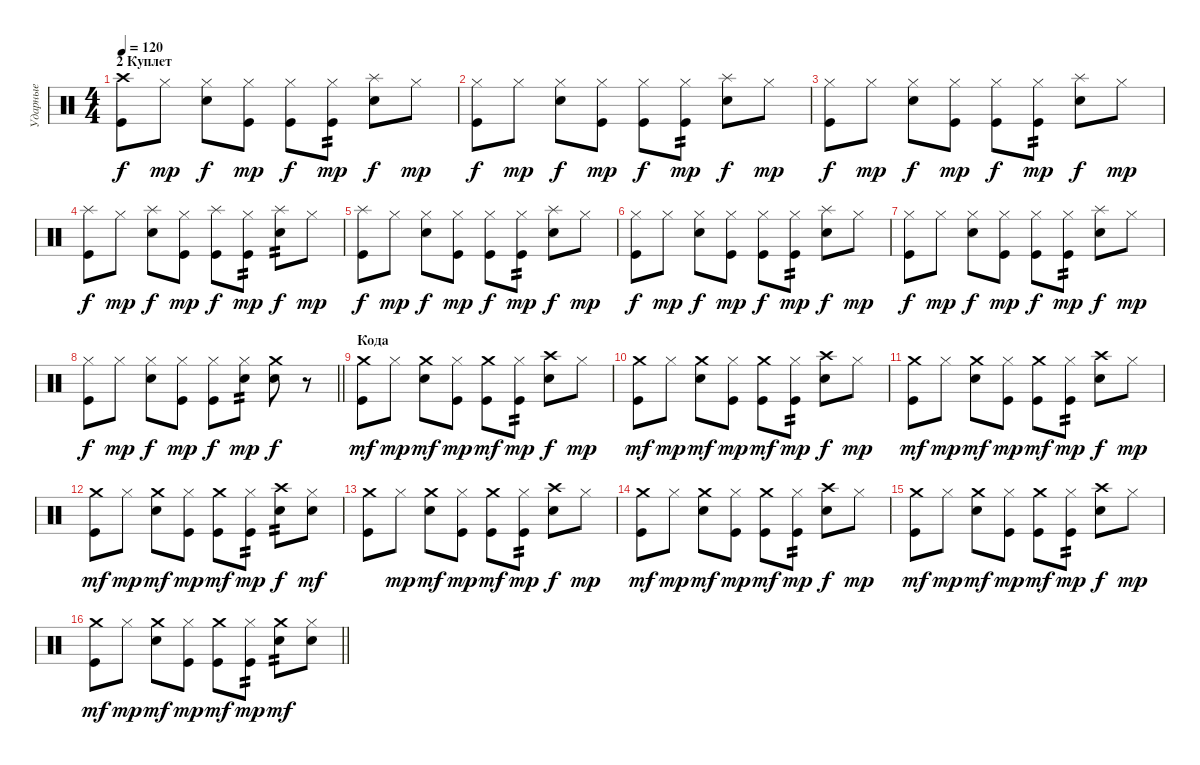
\track ("Ударные" "Ударные") {instrument percussion}
\staff {score}
\articulation defaults
\ts (4 4)
\section ("" "2 Куплет")
\tempo 120
\clef neutral
\ks c
("Crash high (hit)" "Kick (hit)").8{dy f} "Hi-Hat (closed)".8{dy mp} ("Hi-Hat (closed)" "Snare (hit) 2").8{dy f} ("Hi-Hat (closed)" "Kick (hit)").8{dy mp} ("Hi-Hat (closed)" "Kick (hit)").8{dy f} ("Hi-Hat (closed)" "Kick (hit)").8{tp 2 dy mp} ("Splash (hit)" "Snare (hit) 2").8{dy f} "Hi-Hat (closed)".8{dy mp} |
("Hi-Hat (closed)" "Kick (hit)").8{dy f} "Hi-Hat (closed)".8{dy mp} ("Hi-Hat (closed)" "Snare (hit) 2").8{dy f} ("Hi-Hat (closed)" "Kick (hit)").8{dy mp} ("Hi-Hat (closed)" "Kick (hit)").8{dy f} ("Hi-Hat (closed)" "Kick (hit)").8{tp 2 dy mp} ("Splash (hit)" "Snare (hit) 2").8{dy f} "Hi-Hat (closed)".8{dy mp} |
("Hi-Hat (closed)" "Kick (hit)").8{dy f} "Hi-Hat (closed)".8{dy mp} ("Hi-Hat (closed)" "Snare (hit) 2").8{dy f} ("Hi-Hat (closed)" "Kick (hit)").8{dy mp} ("Hi-Hat (closed)" "Kick (hit)").8{dy f} ("Hi-Hat (closed)" "Kick (hit)").8{tp 2 dy mp} ("Splash (hit)" "Snare (hit) 2").8{dy f} "Hi-Hat (closed)".8{dy mp} |
("Splash (hit)" "Kick (hit)").8{dy f} "Hi-Hat (closed)".8{dy mp} ("Splash (hit)" "Snare (hit) 2").8{dy f} ("Hi-Hat (closed)" "Kick (hit)").8{dy mp} ("Splash (hit)" "Kick (hit)").8{dy f} ("Hi-Hat (closed)" "Kick (hit)").8{tp 2 dy mp} ("Splash (hit)" "Snare (hit) 2").8{tp 2 dy f} "Hi-Hat (closed)".8{dy mp} |
("Splash (hit)" "Kick (hit)").8{dy f} "Hi-Hat (closed)".8{dy mp} ("Hi-Hat (closed)" "Snare (hit) 2").8{dy f} ("Hi-Hat (closed)" "Kick (hit)").8{dy mp} ("Hi-Hat (closed)" "Kick (hit)").8{dy f} ("Hi-Hat (closed)" "Kick (hit)").8{tp 2 dy mp} ("Splash (hit)" "Snare (hit) 2").8{dy f} "Hi-Hat (closed)".8{dy mp} |
("Hi-Hat (closed)" "Kick (hit)").8{dy f} "Hi-Hat (closed)".8{dy mp} ("Hi-Hat (closed)" "Snare (hit) 2").8{dy f} ("Hi-Hat (closed)" "Kick (hit)").8{dy mp} ("Hi-Hat (closed)" "Kick (hit)").8{dy f} ("Hi-Hat (closed)" "Kick (hit)").8{tp 2 dy mp} ("Splash (hit)" "Snare (hit) 2").8{dy f} "Hi-Hat (closed)".8{dy mp} |
("Hi-Hat (closed)" "Kick (hit)").8{dy f} "Hi-Hat (closed)".8{dy mp} ("Hi-Hat (closed)" "Snare (hit) 2").8{dy f} ("Hi-Hat (closed)" "Kick (hit)").8{dy mp} ("Hi-Hat (closed)" "Kick (hit)").8{dy f} ("Hi-Hat (closed)" "Kick (hit)").8{tp 2 dy mp} ("Splash (hit)" "Snare (hit) 2").8{dy f} "Hi-Hat (closed)".8{dy mp} |
\barLineRight lightlight
("Hi-Hat (closed)" "Kick (hit)").8{dy f} "Hi-Hat (closed)".8{dy mp} ("Hi-Hat (closed)" "Snare (hit) 2").8{dy f} ("Hi-Hat (closed)" "Kick (hit)").8{dy mp} ("Hi-Hat (closed)" "Kick (hit)").8{dy f} ("Hi-Hat (closed)" "Snare (hit) 2").8{tp 2 dy mp} ("Crash medium (hit)" "Snare (hit) 2").8{dy f} r.8 |
\section ("" "Кода")
("Crash medium (hit)" "Kick (hit)").8{dy mf} "Hi-Hat (closed)".8{dy mp} ("Crash medium (hit)" "Snare (hit) 2").8{dy mf} ("Hi-Hat (closed)" "Kick (hit)").8{dy mp} ("Crash medium (hit)" "Kick (hit)").8{dy mf} ("Hi-Hat (closed)" "Kick (hit)").8{tp 2 dy mp} ("Crash high (hit)" "Snare (hit) 2").8{dy f} "Hi-Hat (closed)".8{dy mp} |
("Crash medium (hit)" "Kick (hit)").8{dy mf} "Hi-Hat (closed)".8{dy mp} ("Crash medium (hit)" "Snare (hit) 2").8{dy mf} ("Hi-Hat (closed)" "Kick (hit)").8{dy mp} ("Crash medium (hit)" "Kick (hit)").8{dy mf} ("Hi-Hat (closed)" "Kick (hit)").8{tp 2 dy mp} ("Crash high (hit)" "Snare (hit) 2").8{dy f} "Hi-Hat (closed)".8{dy mp} |
("Crash medium (hit)" "Kick (hit)").8{dy mf} "Hi-Hat (closed)".8{dy mp} ("Crash medium (hit)" "Snare (hit) 2").8{dy mf} ("Hi-Hat (closed)" "Kick (hit)").8{dy mp} ("Crash medium (hit)" "Kick (hit)").8{dy mf} ("Hi-Hat (closed)" "Kick (hit)").8{tp 2 dy mp} ("Crash high (hit)" "Snare (hit) 2").8{dy f} "Hi-Hat (closed)".8{dy mp} |
("Crash medium (hit)" "Kick (hit)").8{dy mf} "Hi-Hat (closed)".8{dy mp} ("Crash medium (hit)" "Snare (hit) 2").8{dy mf} ("Hi-Hat (closed)" "Kick (hit)").8{dy mp} ("Crash medium (hit)" "Kick (hit)").8{dy mf} ("Hi-Hat (closed)" "Kick (hit)").8{tp 2 dy mp} ("Crash high (hit)" "Snare (hit) 2").8{tp 2 dy f} ("Hi-Hat (closed)" "Snare (hit) 2").8{dy mf} |
("Crash medium (hit)" "Kick (hit)").8 "Hi-Hat (closed)".8{dy mp} ("Crash medium (hit)" "Snare (hit) 2").8{dy mf} ("Hi-Hat (closed)" "Kick (hit)").8{dy mp} ("Crash medium (hit)" "Kick (hit)").8{dy mf} ("Hi-Hat (closed)" "Kick (hit)").8{tp 2 dy mp} ("Crash high (hit)" "Snare (hit) 2").8{dy f} "Hi-Hat (closed)".8{dy mp} |
("Crash medium (hit)" "Kick (hit)").8{dy mf} "Hi-Hat (closed)".8{dy mp} ("Crash medium (hit)" "Snare (hit) 2").8{dy mf} ("Hi-Hat (closed)" "Kick (hit)").8{dy mp} ("Crash medium (hit)" "Kick (hit)").8{dy mf} ("Hi-Hat (closed)" "Kick (hit)").8{tp 2 dy mp} ("Crash high (hit)" "Snare (hit) 2").8{dy f} "Hi-Hat (closed)".8{dy mp} |
("Crash medium (hit)" "Kick (hit)").8{dy mf} "Hi-Hat (closed)".8{dy mp} ("Crash medium (hit)" "Snare (hit) 2").8{dy mf} ("Hi-Hat (closed)" "Kick (hit)").8{dy mp} ("Crash medium (hit)" "Kick (hit)").8{dy mf} ("Hi-Hat (closed)" "Kick (hit)").8{tp 2 dy mp} ("Crash high (hit)" "Snare (hit) 2").8{dy f} "Hi-Hat (closed)".8{dy mp} |
\barLineRight lightlight
("Crash medium (hit)" "Kick (hit)").8{dy mf} "Hi-Hat (closed)".8{dy mp} ("Crash medium (hit)" "Snare (hit) 2").8{dy mf} ("Hi-Hat (closed)" "Kick (hit)").8{dy mp} ("Crash medium (hit)" "Kick (hit)").8{dy mf} ("Hi-Hat (closed)" "Kick (hit)").8{tp 2 dy mp} ("Crash medium (hit)" "Snare (hit) 2").8{tp 2 dy mf} ("Hi-Hat (closed)" "Snare (hit) 2").8
